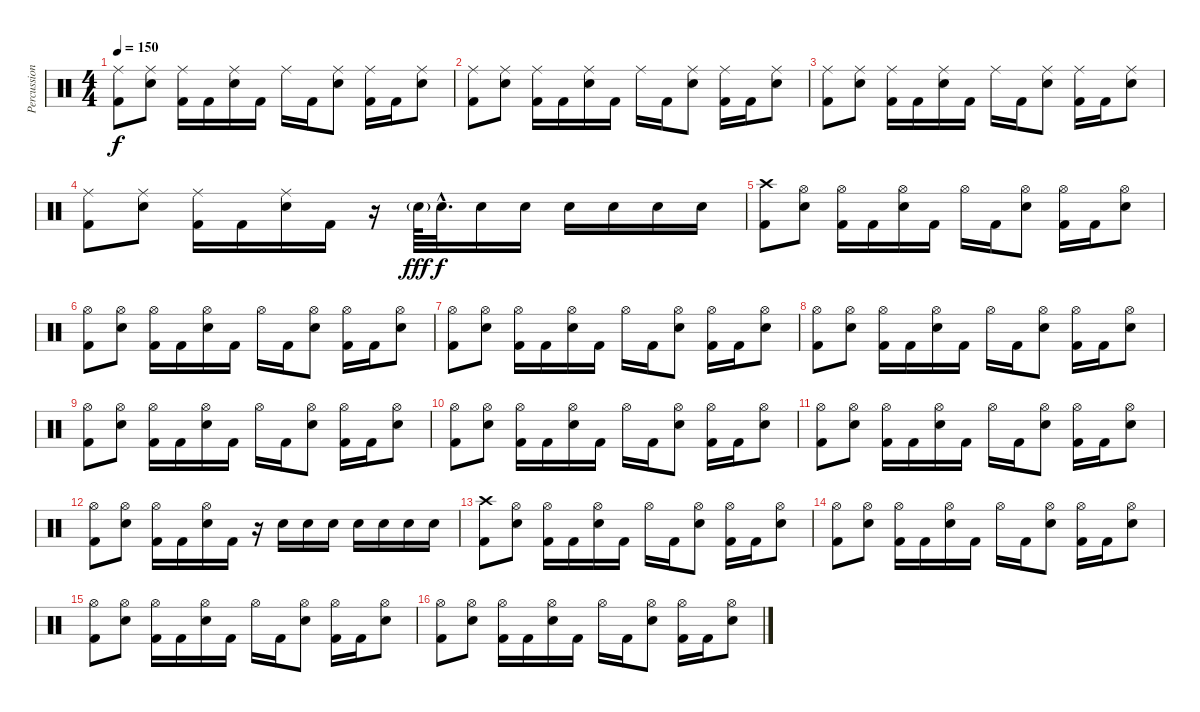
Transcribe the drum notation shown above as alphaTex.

\track ("Percussions" "Percussion") {instrument percussion}
\staff {score}
\articulation defaults
\ts (4 4)
\tempo 150
\clef neutral
\ks c
("Ride (middle)" "Kick (hit) 2").8{dy f} ("Ride (middle)" "Snare (hit) 2").8 ("Ride (middle)" "Kick (hit) 2").16 "Kick (hit) 2".16 ("Ride (middle)" "Snare (hit) 2").16 "Kick (hit) 2".16 "Ride (middle)".16 "Kick (hit) 2".16 ("Ride (middle)" "Snare (hit) 2").8 ("Ride (middle)" "Kick (hit) 2").16 "Kick (hit) 2".16 ("Ride (middle)" "Snare (hit) 2").8 |
("Ride (middle)" "Kick (hit) 2").8 ("Ride (middle)" "Snare (hit) 2").8 ("Ride (middle)" "Kick (hit) 2").16 "Kick (hit) 2".16 ("Ride (middle)" "Snare (hit) 2").16 "Kick (hit) 2".16 "Ride (middle)".16 "Kick (hit) 2".16 ("Ride (middle)" "Snare (hit) 2").8 ("Ride (middle)" "Kick (hit) 2").16 "Kick (hit) 2".16 ("Ride (middle)" "Snare (hit) 2").8 |
("Ride (middle)" "Kick (hit) 2").8 ("Ride (middle)" "Snare (hit) 2").8 ("Ride (middle)" "Kick (hit) 2").16 "Kick (hit) 2".16 ("Ride (middle)" "Snare (hit) 2").16 "Kick (hit) 2".16 "Ride (middle)".16 "Kick (hit) 2".16 ("Ride (middle)" "Snare (hit) 2").8 ("Ride (middle)" "Kick (hit) 2").16 "Kick (hit) 2".16 ("Ride (middle)" "Snare (hit) 2").8 |
("Ride (middle)" "Kick (hit) 2").8 ("Ride (middle)" "Snare (hit) 2").8 ("Ride (middle)" "Kick (hit) 2").16 "Kick (hit) 2".16 ("Ride (middle)" "Snare (hit) 2").16 "Kick (hit) 2".16 r.16 "Snare (hit) 2"{g}.64{dy fff} "Snare (hit) 2"{hac}.32{d dy f} "Snare (hit) 2".16 "Snare (hit) 2".16 "Snare (hit) 2".16 "Snare (hit) 2".16 "Snare (hit) 2".16 "Snare (hit) 2".16 |
("Crash high (hit)" "Kick (hit) 2").8 ("Hi-Hat (open)" "Snare (hit) 2").8 ("Hi-Hat (open)" "Kick (hit) 2").16 "Kick (hit) 2".16 ("Hi-Hat (open)" "Snare (hit) 2").16 "Kick (hit) 2".16 "Hi-Hat (open)".16 "Kick (hit) 2".16 ("Hi-Hat (open)" "Snare (hit) 2").8 ("Hi-Hat (open)" "Kick (hit) 2").16 "Kick (hit) 2".16 ("Hi-Hat (open)" "Snare (hit) 2").8 |
("Hi-Hat (open)" "Kick (hit) 2").8 ("Hi-Hat (open)" "Snare (hit) 2").8 ("Hi-Hat (open)" "Kick (hit) 2").16 "Kick (hit) 2".16 ("Hi-Hat (open)" "Snare (hit) 2").16 "Kick (hit) 2".16 "Hi-Hat (open)".16 "Kick (hit) 2".16 ("Hi-Hat (open)" "Snare (hit) 2").8 ("Hi-Hat (open)" "Kick (hit) 2").16 "Kick (hit) 2".16 ("Hi-Hat (open)" "Snare (hit) 2").8 |
("Hi-Hat (open)" "Kick (hit) 2").8 ("Hi-Hat (open)" "Snare (hit) 2").8 ("Hi-Hat (open)" "Kick (hit) 2").16 "Kick (hit) 2".16 ("Hi-Hat (open)" "Snare (hit) 2").16 "Kick (hit) 2".16 "Hi-Hat (open)".16 "Kick (hit) 2".16 ("Hi-Hat (open)" "Snare (hit) 2").8 ("Hi-Hat (open)" "Kick (hit) 2").16 "Kick (hit) 2".16 ("Hi-Hat (open)" "Snare (hit) 2").8 |
("Hi-Hat (open)" "Kick (hit) 2").8 ("Hi-Hat (open)" "Snare (hit) 2").8 ("Hi-Hat (open)" "Kick (hit) 2").16 "Kick (hit) 2".16 ("Hi-Hat (open)" "Snare (hit) 2").16 "Kick (hit) 2".16 "Hi-Hat (open)".16 "Kick (hit) 2".16 ("Hi-Hat (open)" "Snare (hit) 2").8 ("Hi-Hat (open)" "Kick (hit) 2").16 "Kick (hit) 2".16 ("Hi-Hat (open)" "Snare (hit) 2").8 |
("Hi-Hat (open)" "Kick (hit) 2").8 ("Hi-Hat (open)" "Snare (hit) 2").8 ("Hi-Hat (open)" "Kick (hit) 2").16 "Kick (hit) 2".16 ("Hi-Hat (open)" "Snare (hit) 2").16 "Kick (hit) 2".16 "Hi-Hat (open)".16 "Kick (hit) 2".16 ("Hi-Hat (open)" "Snare (hit) 2").8 ("Hi-Hat (open)" "Kick (hit) 2").16 "Kick (hit) 2".16 ("Hi-Hat (open)" "Snare (hit) 2").8 |
("Hi-Hat (open)" "Kick (hit) 2").8 ("Hi-Hat (open)" "Snare (hit) 2").8 ("Hi-Hat (open)" "Kick (hit) 2").16 "Kick (hit) 2".16 ("Hi-Hat (open)" "Snare (hit) 2").16 "Kick (hit) 2".16 "Hi-Hat (open)".16 "Kick (hit) 2".16 ("Hi-Hat (open)" "Snare (hit) 2").8 ("Hi-Hat (open)" "Kick (hit) 2").16 "Kick (hit) 2".16 ("Hi-Hat (open)" "Snare (hit) 2").8 |
("Hi-Hat (open)" "Kick (hit) 2").8 ("Hi-Hat (open)" "Snare (hit) 2").8 ("Hi-Hat (open)" "Kick (hit) 2").16 "Kick (hit) 2".16 ("Hi-Hat (open)" "Snare (hit) 2").16 "Kick (hit) 2".16 "Hi-Hat (open)".16 "Kick (hit) 2".16 ("Hi-Hat (open)" "Snare (hit) 2").8 ("Hi-Hat (open)" "Kick (hit) 2").16 "Kick (hit) 2".16 ("Hi-Hat (open)" "Snare (hit) 2").8 |
("Hi-Hat (open)" "Kick (hit) 2").8 ("Hi-Hat (open)" "Snare (hit) 2").8 ("Hi-Hat (open)" "Kick (hit) 2").16 "Kick (hit) 2".16 ("Hi-Hat (open)" "Snare (hit) 2").16 "Kick (hit) 2".16 r.16 "Snare (hit) 2".16 "Snare (hit) 2".16 "Snare (hit) 2".16 "Snare (hit) 2".16 "Snare (hit) 2".16 "Snare (hit) 2".16 "Snare (hit) 2".16 |
("Crash high (hit)" "Kick (hit) 2").8 ("Hi-Hat (open)" "Snare (hit) 2").8 ("Hi-Hat (open)" "Kick (hit) 2").16 "Kick (hit) 2".16 ("Hi-Hat (open)" "Snare (hit) 2").16 "Kick (hit) 2".16 "Hi-Hat (open)".16 "Kick (hit) 2".16 ("Hi-Hat (open)" "Snare (hit) 2").8 ("Hi-Hat (open)" "Kick (hit) 2").16 "Kick (hit) 2".16 ("Hi-Hat (open)" "Snare (hit) 2").8 |
("Hi-Hat (open)" "Kick (hit) 2").8 ("Hi-Hat (open)" "Snare (hit) 2").8 ("Hi-Hat (open)" "Kick (hit) 2").16 "Kick (hit) 2".16 ("Hi-Hat (open)" "Snare (hit) 2").16 "Kick (hit) 2".16 "Hi-Hat (open)".16 "Kick (hit) 2".16 ("Hi-Hat (open)" "Snare (hit) 2").8 ("Hi-Hat (open)" "Kick (hit) 2").16 "Kick (hit) 2".16 ("Hi-Hat (open)" "Snare (hit) 2").8 |
("Hi-Hat (open)" "Kick (hit) 2").8 ("Hi-Hat (open)" "Snare (hit) 2").8 ("Hi-Hat (open)" "Kick (hit) 2").16 "Kick (hit) 2".16 ("Hi-Hat (open)" "Snare (hit) 2").16 "Kick (hit) 2".16 "Hi-Hat (open)".16 "Kick (hit) 2".16 ("Hi-Hat (open)" "Snare (hit) 2").8 ("Hi-Hat (open)" "Kick (hit) 2").16 "Kick (hit) 2".16 ("Hi-Hat (open)" "Snare (hit) 2").8 |
("Hi-Hat (open)" "Kick (hit) 2").8 ("Hi-Hat (open)" "Snare (hit) 2").8 ("Hi-Hat (open)" "Kick (hit) 2").16 "Kick (hit) 2".16 ("Hi-Hat (open)" "Snare (hit) 2").16 "Kick (hit) 2".16 "Hi-Hat (open)".16 "Kick (hit) 2".16 ("Hi-Hat (open)" "Snare (hit) 2").8 ("Hi-Hat (open)" "Kick (hit) 2").16 "Kick (hit) 2".16 ("Hi-Hat (open)" "Snare (hit) 2").8
